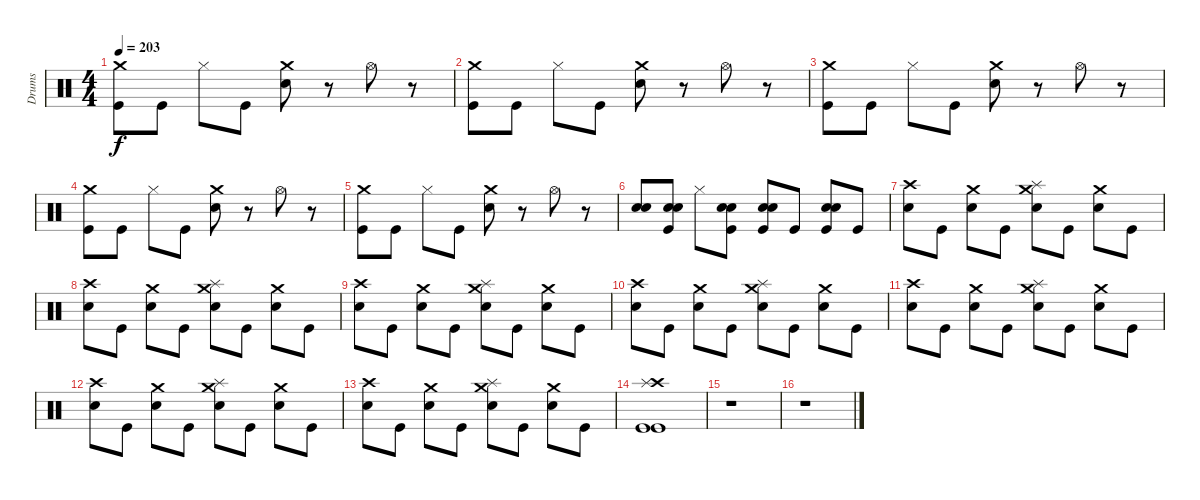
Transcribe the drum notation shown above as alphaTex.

\track ("Drums" "Drums") {instrument percussion}
\staff {score}
\articulation defaults
\ts (4 4)
\tempo 203
\clef neutral
\ks c
("Crash medium (hit)" "Kick (hit)").8{dy f} "Kick (hit)".8 "Hi-Hat (closed)".8 "Kick (hit)".8 ("Crash medium (hit)" "Snare (hit) 2").8 r.8 "Hi-Hat (open)".8 r.8 |
("Crash medium (hit)" "Kick (hit)").8 "Kick (hit)".8 "Hi-Hat (closed)".8 "Kick (hit)".8 ("Crash medium (hit)" "Snare (hit) 2").8 r.8 "Hi-Hat (open)".8 r.8 |
("Crash medium (hit)" "Kick (hit)").8 "Kick (hit)".8 "Hi-Hat (closed)".8 "Kick (hit)".8 ("Crash medium (hit)" "Snare (hit) 2").8 r.8 "Hi-Hat (open)".8 r.8 |
("Crash medium (hit)" "Kick (hit)").8 "Kick (hit)".8 "Hi-Hat (closed)".8 "Kick (hit)".8 ("Crash medium (hit)" "Snare (hit) 2").8 r.8 "Hi-Hat (open)".8 r.8 |
("Crash medium (hit)" "Kick (hit)").8 "Kick (hit)".8 "Hi-Hat (closed)".8 "Kick (hit)".8 ("Crash medium (hit)" "Snare (hit) 2").8 r.8 "Hi-Hat (open)".8 r.8 |
("Snare (hit) 2" "Snare (hit) 2").8 ("Snare (hit) 2" "Snare (hit) 2" "Kick (hit)").8 "Hi-Hat (closed)".8 ("Snare (hit) 2" "Snare (hit) 2" "Kick (hit)").8 ("Snare (hit) 2" "Snare (hit) 2" "Kick (hit)").8 "Kick (hit)".8 ("Snare (hit) 2" "Snare (hit) 2" "Kick (hit)").8 "Kick (hit)".8 |
("Crash high (hit)" "Snare (hit) 2").8 "Kick (hit)".8 ("Crash medium (hit)" "Snare (hit) 2").8 "Kick (hit)".8 ("Splash (hit)" "Crash medium (hit)" "Snare (hit) 2").8 "Kick (hit)".8 ("Crash medium (hit)" "Snare (hit) 2").8 "Kick (hit)".8 |
("Crash high (hit)" "Snare (hit) 2").8 "Kick (hit)".8 ("Crash medium (hit)" "Snare (hit) 2").8 "Kick (hit)".8 ("Splash (hit)" "Crash medium (hit)" "Snare (hit) 2").8 "Kick (hit)".8 ("Crash medium (hit)" "Snare (hit) 2").8 "Kick (hit)".8 |
("Crash high (hit)" "Snare (hit) 2").8 "Kick (hit)".8 ("Crash medium (hit)" "Snare (hit) 2").8 "Kick (hit)".8 ("Splash (hit)" "Crash medium (hit)" "Snare (hit) 2").8 "Kick (hit)".8 ("Crash medium (hit)" "Snare (hit) 2").8 "Kick (hit)".8 |
("Crash high (hit)" "Snare (hit) 2").8 "Kick (hit)".8 ("Crash medium (hit)" "Snare (hit) 2").8 "Kick (hit)".8 ("Splash (hit)" "Crash medium (hit)" "Snare (hit) 2").8 "Kick (hit)".8 ("Crash medium (hit)" "Snare (hit) 2").8 "Kick (hit)".8 |
("Crash high (hit)" "Snare (hit) 2").8 "Kick (hit)".8 ("Crash medium (hit)" "Snare (hit) 2").8 "Kick (hit)".8 ("Splash (hit)" "Crash medium (hit)" "Snare (hit) 2").8 "Kick (hit)".8 ("Crash medium (hit)" "Snare (hit) 2").8 "Kick (hit)".8 |
("Crash high (hit)" "Snare (hit) 2").8 "Kick (hit)".8 ("Crash medium (hit)" "Snare (hit) 2").8 "Kick (hit)".8 ("Splash (hit)" "Crash medium (hit)" "Snare (hit) 2").8 "Kick (hit)".8 ("Crash medium (hit)" "Snare (hit) 2").8 "Kick (hit)".8 |
("Crash high (hit)" "Snare (hit) 2").8 "Kick (hit)".8 ("Crash medium (hit)" "Snare (hit) 2").8 "Kick (hit)".8 ("Splash (hit)" "Crash medium (hit)" "Snare (hit) 2").8 "Kick (hit)".8 ("Crash medium (hit)" "Snare (hit) 2").8 "Kick (hit)".8 |
("Crash high (hit)" "Kick (hit)" "Splash (hit)" "Kick (hit)").1 |
r.1 |
r.1
